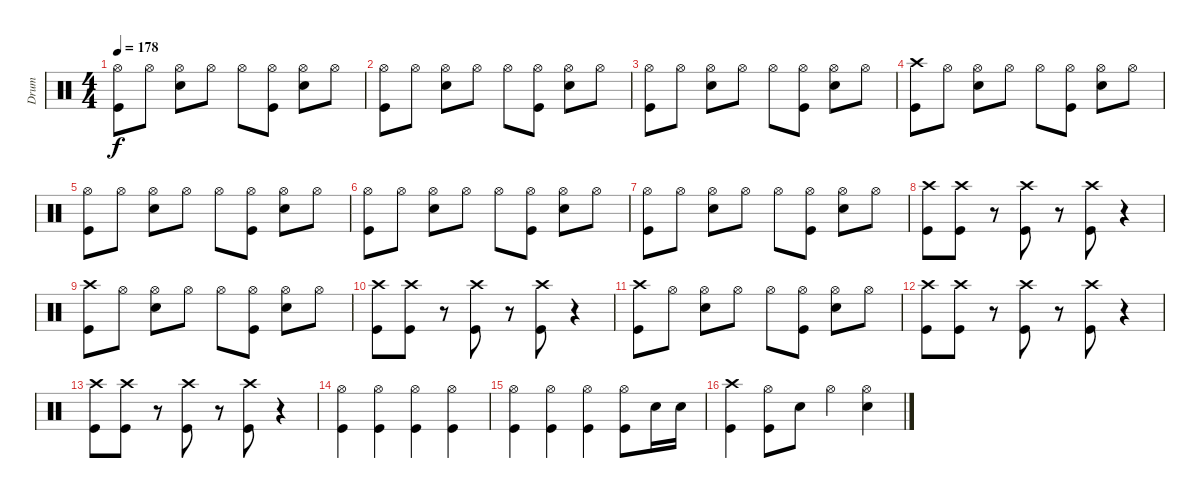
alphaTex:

\track ("Drum" "Drum") {instrument percussion}
\staff {score}
\articulation defaults
\ts (4 4)
\tempo 178
\clef neutral
\ks c
("Hi-Hat (open)" "Kick (hit)").8{dy f} "Hi-Hat (open)".8 ("Hi-Hat (open)" "Snare (hit) 2").8 "Hi-Hat (open)".8 "Hi-Hat (open)".8 ("Hi-Hat (open)" "Kick (hit)").8 ("Hi-Hat (open)" "Snare (hit) 2").8 "Hi-Hat (open)".8 |
("Hi-Hat (open)" "Kick (hit)").8 "Hi-Hat (open)".8 ("Hi-Hat (open)" "Snare (hit) 2").8 "Hi-Hat (open)".8 "Hi-Hat (open)".8 ("Hi-Hat (open)" "Kick (hit)").8 ("Hi-Hat (open)" "Snare (hit) 2").8 "Hi-Hat (open)".8 |
("Hi-Hat (open)" "Kick (hit)").8 "Hi-Hat (open)".8 ("Hi-Hat (open)" "Snare (hit) 2").8 "Hi-Hat (open)".8 "Hi-Hat (open)".8 ("Hi-Hat (open)" "Kick (hit)").8 ("Hi-Hat (open)" "Snare (hit) 2").8 "Hi-Hat (open)".8 |
("Crash high (hit)" "Kick (hit)").8 "Hi-Hat (open)".8 ("Hi-Hat (open)" "Snare (hit) 2").8 "Hi-Hat (open)".8 "Hi-Hat (open)".8 ("Hi-Hat (open)" "Kick (hit)").8 ("Hi-Hat (open)" "Snare (hit) 2").8 "Hi-Hat (open)".8 |
("Hi-Hat (open)" "Kick (hit)").8 "Hi-Hat (open)".8 ("Hi-Hat (open)" "Snare (hit) 2").8 "Hi-Hat (open)".8 "Hi-Hat (open)".8 ("Hi-Hat (open)" "Kick (hit)").8 ("Hi-Hat (open)" "Snare (hit) 2").8 "Hi-Hat (open)".8 |
("Hi-Hat (open)" "Kick (hit)").8 "Hi-Hat (open)".8 ("Hi-Hat (open)" "Snare (hit) 2").8 "Hi-Hat (open)".8 "Hi-Hat (open)".8 ("Hi-Hat (open)" "Kick (hit)").8 ("Hi-Hat (open)" "Snare (hit) 2").8 "Hi-Hat (open)".8 |
("Hi-Hat (open)" "Kick (hit)").8 "Hi-Hat (open)".8 ("Hi-Hat (open)" "Snare (hit) 2").8 "Hi-Hat (open)".8 "Hi-Hat (open)".8 ("Hi-Hat (open)" "Kick (hit)").8 ("Hi-Hat (open)" "Snare (hit) 2").8 "Hi-Hat (open)".8 |
("Crash high (hit)" "Kick (hit)").8 ("Crash high (hit)" "Kick (hit)").8 r.8 ("Crash high (hit)" "Kick (hit)").8 r.8 ("Crash high (hit)" "Kick (hit)").8 r.4 |
("Crash high (hit)" "Kick (hit)").8 "Hi-Hat (open)".8 ("Hi-Hat (open)" "Snare (hit) 2").8 "Hi-Hat (open)".8 "Hi-Hat (open)".8 ("Hi-Hat (open)" "Kick (hit)").8 ("Hi-Hat (open)" "Snare (hit) 2").8 "Hi-Hat (open)".8 |
("Crash high (hit)" "Kick (hit)").8 ("Crash high (hit)" "Kick (hit)").8 r.8 ("Crash high (hit)" "Kick (hit)").8 r.8 ("Crash high (hit)" "Kick (hit)").8 r.4 |
("Crash high (hit)" "Kick (hit)").8 "Hi-Hat (open)".8 ("Hi-Hat (open)" "Snare (hit) 2").8 "Hi-Hat (open)".8 "Hi-Hat (open)".8 ("Hi-Hat (open)" "Kick (hit)").8 ("Hi-Hat (open)" "Snare (hit) 2").8 "Hi-Hat (open)".8 |
("Crash high (hit)" "Kick (hit)").8 ("Crash high (hit)" "Kick (hit)").8 r.8 ("Crash high (hit)" "Kick (hit)").8 r.8 ("Crash high (hit)" "Kick (hit)").8 r.4 |
("Crash high (hit)" "Kick (hit)").8 ("Crash high (hit)" "Kick (hit)").8 r.8 ("Crash high (hit)" "Kick (hit)").8 r.8 ("Crash high (hit)" "Kick (hit)").8 r.4 |
("Hi-Hat (open)" "Kick (hit)").4 ("Hi-Hat (open)" "Kick (hit)").4 ("Hi-Hat (open)" "Kick (hit)").4 ("Hi-Hat (open)" "Kick (hit)").4 |
("Hi-Hat (open)" "Kick (hit)").4 ("Hi-Hat (open)" "Kick (hit)").4 ("Hi-Hat (open)" "Kick (hit)").4 ("Hi-Hat (open)" "Kick (hit)").8 "Snare (hit) 2".16 "Snare (hit) 2".16 |
("Crash high (hit)" "Kick (hit)").4 ("Hi-Hat (open)" "Kick (hit)").8 "Snare (hit) 2".8 "Hi-Hat (open)".4 ("Hi-Hat (open)" "Snare (hit) 2").4
